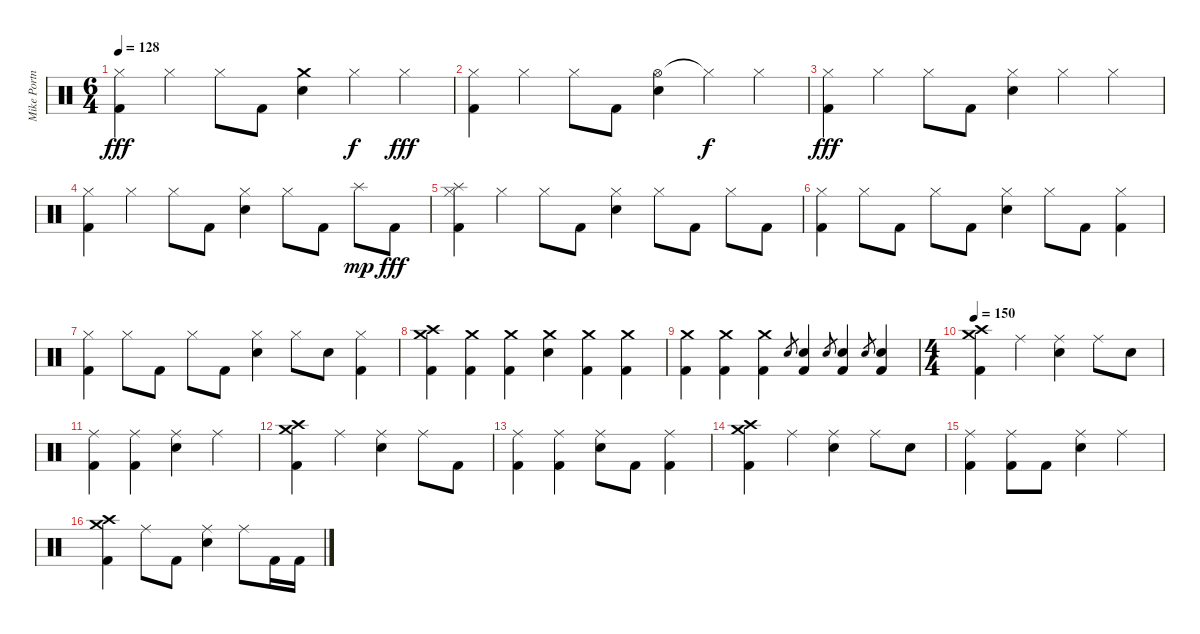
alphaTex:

\track ("Mike Portnoy" "Mike Portn") {instrument percussion}
\staff {score}
\articulation defaults
\ts (6 4)
\tempo 128
\clef neutral
\ks c
("Hi-Hat (closed)" "Kick (hit) 2").4{dy fff} "Hi-Hat (closed)".4 "Hi-Hat (closed)".8 "Kick (hit) 2".8 ("Crash medium (hit)" "Electric Snare (hit)").4 "Hi-Hat (closed)".4{dy f} "Hi-Hat (closed)".4{dy fff} |
("Hi-Hat (closed)" "Kick (hit) 2").4 "Hi-Hat (closed)".4 "Hi-Hat (closed)".8 "Kick (hit) 2".8 ("Hi-Hat (open)" "Electric Snare (hit)").4 "Hi-Hat (closed)"{t}.4{dy f} "Hi-Hat (closed)".4 |
("Hi-Hat (closed)" "Kick (hit) 2").4{dy fff} "Hi-Hat (closed)".4 "Hi-Hat (closed)".8 "Kick (hit) 2".8 ("Hi-Hat (closed)" "Electric Snare (hit)").4 "Hi-Hat (closed)".4 "Hi-Hat (closed)".4 |
("Hi-Hat (closed)" "Kick (hit) 2").4 "Hi-Hat (closed)".4 "Hi-Hat (closed)".8 "Kick (hit) 2".8 ("Hi-Hat (closed)" "Electric Snare (hit)").4 "Hi-Hat (closed)".8 "Kick (hit) 2".8 "Splash (hit)".8{dy mp} "Kick (hit) 2".8{dy fff} |
("Splash (hit)" "Hi-Hat (closed)" "Kick (hit) 2").4 "Hi-Hat (closed)".4 "Hi-Hat (closed)".8 "Kick (hit) 2".8 ("Hi-Hat (closed)" "Electric Snare (hit)").4 "Hi-Hat (closed)".8 "Kick (hit) 2".8 "Hi-Hat (closed)".8 "Kick (hit) 2".8 |
("Hi-Hat (closed)" "Kick (hit) 2").4 "Hi-Hat (closed)".8 "Kick (hit) 2".8 "Hi-Hat (closed)".8 "Kick (hit) 2".8 ("Hi-Hat (closed)" "Electric Snare (hit)").4 "Hi-Hat (closed)".8 "Kick (hit) 2".8 ("Hi-Hat (closed)" "Kick (hit) 2").4 |
("Hi-Hat (closed)" "Kick (hit) 2").4 "Hi-Hat (closed)".8 "Kick (hit) 2".8 "Hi-Hat (closed)".8 "Kick (hit) 2".8 ("Hi-Hat (closed)" "Electric Snare (hit)").4 "Hi-Hat (closed)".8 "Electric Snare (hit)".8 ("Hi-Hat (closed)" "Kick (hit) 2").4 |
("Crash high (hit)" "Crash medium (hit)" "Kick (hit) 2").4 ("Crash medium (hit)" "Kick (hit) 2").4 ("Crash medium (hit)" "Kick (hit) 2").4 ("Crash medium (hit)" "Electric Snare (hit)").4 ("Crash medium (hit)" "Kick (hit) 2").4 ("Crash medium (hit)" "Kick (hit) 2").4 |
("Crash medium (hit)" "Kick (hit) 2").4 ("Crash medium (hit)" "Kick (hit) 2").4 ("Crash medium (hit)" "Kick (hit) 2").4 "Electric Snare (hit)".8{gr} ("Kick (hit) 2" "Electric Snare (hit)").4 "Electric Snare (hit)".8{gr} ("Kick (hit) 2" "Electric Snare (hit)").4 "Electric Snare (hit)".8{gr} ("Kick (hit) 2" "Electric Snare (hit)").4 |
\ts (4 4)
\tempo 150
("Crash high (hit)" "Crash medium (hit)" "Kick (hit) 2").4 "Ride (middle)".4 ("Ride (middle)" "Electric Snare (hit)").4 "Ride (middle)".8 "Electric Snare (hit)".8 |
("Ride (middle)" "Kick (hit) 2").4 ("Ride (middle)" "Kick (hit) 2").4 ("Ride (middle)" "Electric Snare (hit)").4 "Ride (middle)".4 |
("Crash high (hit)" "Crash medium (hit)" "Kick (hit) 2").4 "Ride (middle)".4 ("Ride (middle)" "Electric Snare (hit)").4 "Ride (middle)".8 "Kick (hit) 2".8 |
("Ride (middle)" "Kick (hit) 2").4 ("Ride (middle)" "Kick (hit) 2").4 ("Ride (middle)" "Electric Snare (hit)").8 "Kick (hit) 2".8 ("Ride (middle)" "Kick (hit) 2").4 |
("Crash high (hit)" "Crash medium (hit)" "Kick (hit) 2").4 "Ride (middle)".4 ("Ride (middle)" "Electric Snare (hit)").4 "Ride (middle)".8 "Electric Snare (hit)".8 |
("Ride (middle)" "Kick (hit) 2").4 ("Ride (middle)" "Kick (hit) 2").8 "Kick (hit) 2".8 ("Ride (middle)" "Electric Snare (hit)").4 "Ride (middle)".4 |
("Crash high (hit)" "Crash medium (hit)" "Kick (hit) 2").4 "Ride (middle)".8 "Kick (hit) 2".8 ("Ride (middle)" "Electric Snare (hit)").4 "Ride (middle)".8 "Kick (hit) 2".16 "Kick (hit) 2".16
